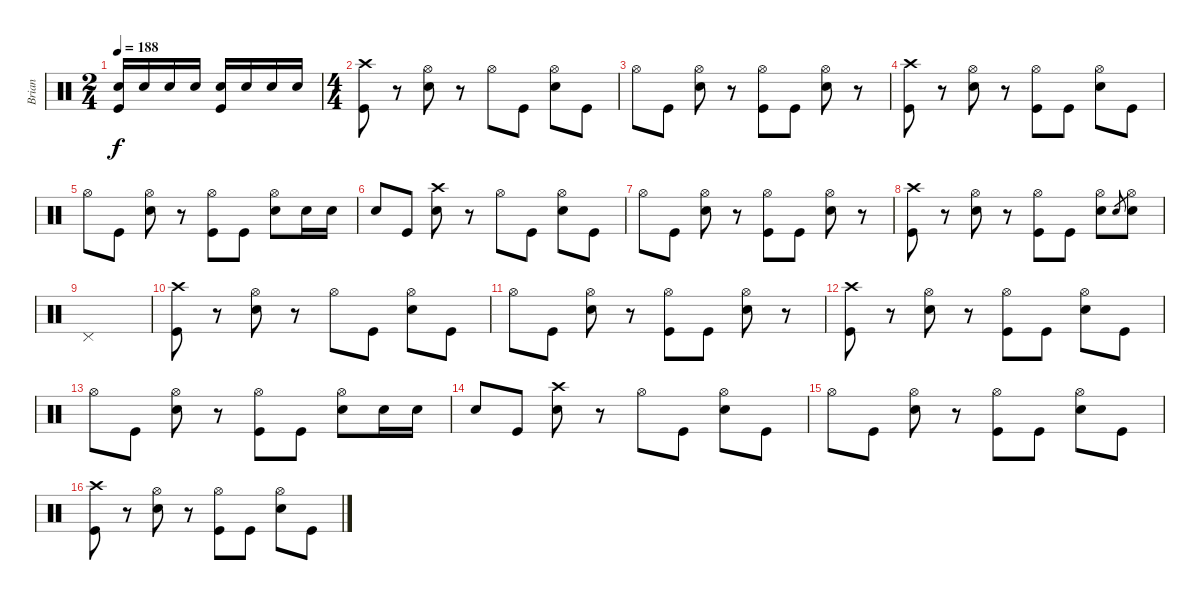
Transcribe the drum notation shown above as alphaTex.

\track ("Brian" "Brian") {instrument percussion}
\staff {score}
\articulation defaults
\ts (2 4)
\tempo 188
\clef neutral
\ks c
("Snare (hit) 2" "Kick (hit)").16{dy f} "Snare (hit) 2".16 "Snare (hit) 2".16 "Snare (hit) 2".16 ("Snare (hit) 2" "Kick (hit)").16 "Snare (hit) 2".16 "Snare (hit) 2".16 "Snare (hit) 2".16 |
\ts (4 4)
("Crash high (hit)" "Kick (hit)").8 r.8 ("Hi-Hat (open)" "Snare (hit) 2").8 r.8 "Hi-Hat (open)".8 "Kick (hit)".8 ("Hi-Hat (open)" "Snare (hit) 2").8 "Kick (hit)".8 |
"Hi-Hat (open)".8 "Kick (hit)".8 ("Hi-Hat (open)" "Snare (hit) 2").8 r.8 ("Hi-Hat (open)" "Kick (hit)").8 "Kick (hit)".8 ("Hi-Hat (open)" "Snare (hit) 2").8 r.8 |
("Crash high (hit)" "Kick (hit)").8 r.8 ("Hi-Hat (open)" "Snare (hit) 2").8 r.8 ("Hi-Hat (open)" "Kick (hit)").8 "Kick (hit)".8 ("Hi-Hat (open)" "Snare (hit) 2").8 "Kick (hit)".8 |
"Hi-Hat (open)".8 "Kick (hit)".8 ("Hi-Hat (open)" "Snare (hit) 2").8 r.8 ("Hi-Hat (open)" "Kick (hit)").8 "Kick (hit)".8 ("Hi-Hat (open)" "Snare (hit) 2").8 "Snare (hit) 2".16 "Snare (hit) 2".16 |
"Snare (hit) 2".8 "Kick (hit)".8 ("Crash high (hit)" "Snare (hit) 2").8 r.8 "Hi-Hat (open)".8 "Kick (hit)".8 ("Hi-Hat (open)" "Snare (hit) 2").8 "Kick (hit)".8 |
"Hi-Hat (open)".8 "Kick (hit)".8 ("Hi-Hat (open)" "Snare (hit) 2").8 r.8 ("Hi-Hat (open)" "Kick (hit)").8 "Kick (hit)".8 ("Hi-Hat (open)" "Snare (hit) 2").8 r.8 |
("Crash high (hit)" "Kick (hit)").8 r.8 ("Hi-Hat (open)" "Snare (hit) 2").8 r.8 ("Hi-Hat (open)" "Kick (hit)").8 "Kick (hit)".8 ("Hi-Hat (open)" "Snare (hit) 2").8 "Snare (hit) 2".8{gr} ("Hi-Hat (open)" "Snare (hit) 2").8 |
"Pedal Hi-Hat (hit)".1 |
("Crash high (hit)" "Kick (hit)").8 r.8 ("Hi-Hat (open)" "Snare (hit) 2").8 r.8 "Hi-Hat (open)".8 "Kick (hit)".8 ("Hi-Hat (open)" "Snare (hit) 2").8 "Kick (hit)".8 |
"Hi-Hat (open)".8 "Kick (hit)".8 ("Hi-Hat (open)" "Snare (hit) 2").8 r.8 ("Hi-Hat (open)" "Kick (hit)").8 "Kick (hit)".8 ("Hi-Hat (open)" "Snare (hit) 2").8 r.8 |
("Crash high (hit)" "Kick (hit)").8 r.8 ("Hi-Hat (open)" "Snare (hit) 2").8 r.8 ("Hi-Hat (open)" "Kick (hit)").8 "Kick (hit)".8 ("Hi-Hat (open)" "Snare (hit) 2").8 "Kick (hit)".8 |
"Hi-Hat (open)".8 "Kick (hit)".8 ("Hi-Hat (open)" "Snare (hit) 2").8 r.8 ("Hi-Hat (open)" "Kick (hit)").8 "Kick (hit)".8 ("Hi-Hat (open)" "Snare (hit) 2").8 "Snare (hit) 2".16 "Snare (hit) 2".16 |
"Snare (hit) 2".8 "Kick (hit)".8 ("Crash high (hit)" "Snare (hit) 2").8 r.8 "Hi-Hat (open)".8 "Kick (hit)".8 ("Hi-Hat (open)" "Snare (hit) 2").8 "Kick (hit)".8 |
"Hi-Hat (open)".8 "Kick (hit)".8 ("Hi-Hat (open)" "Snare (hit) 2").8 r.8 ("Hi-Hat (open)" "Kick (hit)").8 "Kick (hit)".8 ("Hi-Hat (open)" "Snare (hit) 2").8 "Kick (hit)".8 |
("Crash high (hit)" "Kick (hit)").8 r.8 ("Hi-Hat (open)" "Snare (hit) 2").8 r.8 ("Hi-Hat (open)" "Kick (hit)").8 "Kick (hit)".8 ("Hi-Hat (open)" "Snare (hit) 2").8 "Kick (hit)".8
